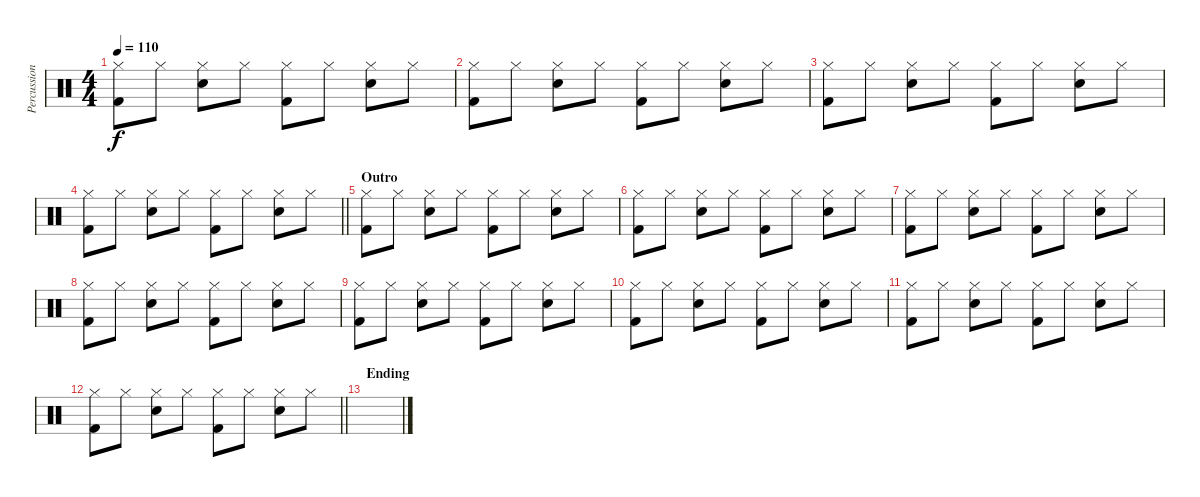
\track ("Percussion" "Percussion") {instrument percussion}
\staff {score}
\articulation defaults
\ts (4 4)
\tempo 110
\clef neutral
\ks c
("Hi-Hat (closed)" "Kick (hit) 2").8{dy f} "Hi-Hat (closed)".8 ("Hi-Hat (closed)" "Electric Snare (hit)").8 "Hi-Hat (closed)".8 ("Hi-Hat (closed)" "Kick (hit) 2").8 "Hi-Hat (closed)".8 ("Hi-Hat (closed)" "Electric Snare (hit)").8 "Hi-Hat (closed)".8 |
("Hi-Hat (closed)" "Kick (hit) 2").8 "Hi-Hat (closed)".8 ("Hi-Hat (closed)" "Electric Snare (hit)").8 "Hi-Hat (closed)".8 ("Hi-Hat (closed)" "Kick (hit) 2").8 "Hi-Hat (closed)".8 ("Hi-Hat (closed)" "Electric Snare (hit)").8 "Hi-Hat (closed)".8 |
("Hi-Hat (closed)" "Kick (hit) 2").8 "Hi-Hat (closed)".8 ("Hi-Hat (closed)" "Electric Snare (hit)").8 "Hi-Hat (closed)".8 ("Hi-Hat (closed)" "Kick (hit) 2").8 "Hi-Hat (closed)".8 ("Hi-Hat (closed)" "Electric Snare (hit)").8 "Hi-Hat (closed)".8 |
\barLineRight lightlight
("Hi-Hat (closed)" "Kick (hit) 2").8 "Hi-Hat (closed)".8 ("Hi-Hat (closed)" "Electric Snare (hit)").8 "Hi-Hat (closed)".8 ("Hi-Hat (closed)" "Kick (hit) 2").8 "Hi-Hat (closed)".8 ("Hi-Hat (closed)" "Electric Snare (hit)").8 "Hi-Hat (closed)".8 |
\section ("" "Outro")
("Hi-Hat (closed)" "Kick (hit) 2").8 "Hi-Hat (closed)".8 ("Hi-Hat (closed)" "Electric Snare (hit)").8 "Hi-Hat (closed)".8 ("Hi-Hat (closed)" "Kick (hit) 2").8 "Hi-Hat (closed)".8 ("Hi-Hat (closed)" "Electric Snare (hit)").8 "Hi-Hat (closed)".8 |
("Hi-Hat (closed)" "Kick (hit) 2").8 "Hi-Hat (closed)".8 ("Hi-Hat (closed)" "Electric Snare (hit)").8 "Hi-Hat (closed)".8 ("Hi-Hat (closed)" "Kick (hit) 2").8 "Hi-Hat (closed)".8 ("Hi-Hat (closed)" "Electric Snare (hit)").8 "Hi-Hat (closed)".8 |
("Hi-Hat (closed)" "Kick (hit) 2").8 "Hi-Hat (closed)".8 ("Hi-Hat (closed)" "Electric Snare (hit)").8 "Hi-Hat (closed)".8 ("Hi-Hat (closed)" "Kick (hit) 2").8 "Hi-Hat (closed)".8 ("Hi-Hat (closed)" "Electric Snare (hit)").8 "Hi-Hat (closed)".8 |
("Hi-Hat (closed)" "Kick (hit) 2").8 "Hi-Hat (closed)".8 ("Hi-Hat (closed)" "Electric Snare (hit)").8 "Hi-Hat (closed)".8 ("Hi-Hat (closed)" "Kick (hit) 2").8 "Hi-Hat (closed)".8 ("Hi-Hat (closed)" "Electric Snare (hit)").8 "Hi-Hat (closed)".8 |
("Hi-Hat (closed)" "Kick (hit) 2").8 "Hi-Hat (closed)".8 ("Hi-Hat (closed)" "Electric Snare (hit)").8 "Hi-Hat (closed)".8 ("Hi-Hat (closed)" "Kick (hit) 2").8 "Hi-Hat (closed)".8 ("Hi-Hat (closed)" "Electric Snare (hit)").8 "Hi-Hat (closed)".8 |
("Hi-Hat (closed)" "Kick (hit) 2").8 "Hi-Hat (closed)".8 ("Hi-Hat (closed)" "Electric Snare (hit)").8 "Hi-Hat (closed)".8 ("Hi-Hat (closed)" "Kick (hit) 2").8 "Hi-Hat (closed)".8 ("Hi-Hat (closed)" "Electric Snare (hit)").8 "Hi-Hat (closed)".8 |
("Hi-Hat (closed)" "Kick (hit) 2").8 "Hi-Hat (closed)".8 ("Hi-Hat (closed)" "Electric Snare (hit)").8 "Hi-Hat (closed)".8 ("Hi-Hat (closed)" "Kick (hit) 2").8 "Hi-Hat (closed)".8 ("Hi-Hat (closed)" "Electric Snare (hit)").8 "Hi-Hat (closed)".8 |
\barLineRight lightlight
("Hi-Hat (closed)" "Kick (hit) 2").8 "Hi-Hat (closed)".8 ("Hi-Hat (closed)" "Electric Snare (hit)").8 "Hi-Hat (closed)".8 ("Hi-Hat (closed)" "Kick (hit) 2").8 "Hi-Hat (closed)".8 ("Hi-Hat (closed)" "Electric Snare (hit)").8 "Hi-Hat (closed)".8 |
\section ("" "Ending")
